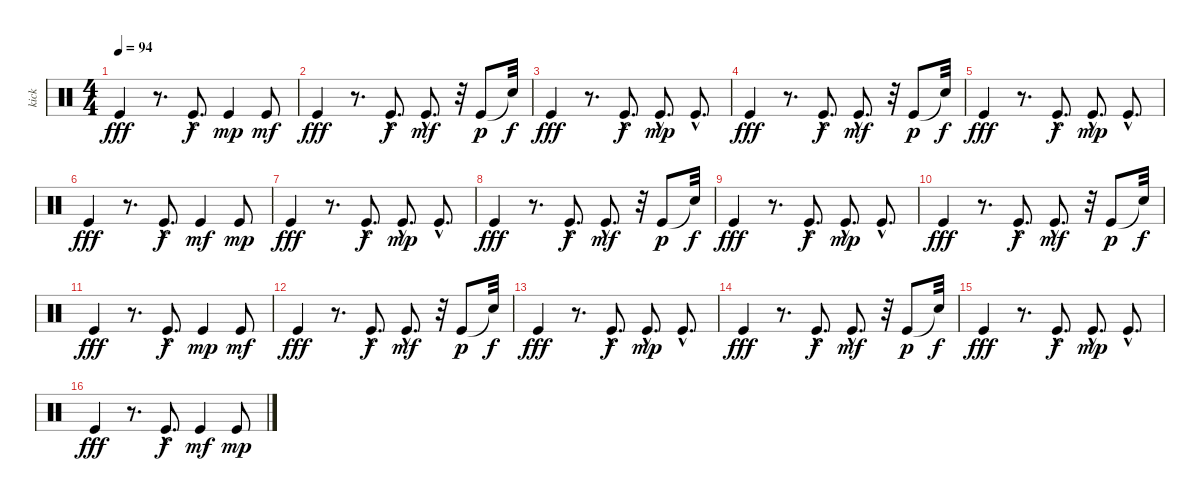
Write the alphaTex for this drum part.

\track ("kick" "kick") {instrument percussion}
\staff {score}
\articulation defaults
\ts (4 4)
\tempo 94
\clef neutral
\ks c "Kick (hit)".4{dy fff}
r.8{d} "Kick (hit)"{hac}.8{d dy f} "Kick (hit)".4{dy mp} "Kick (hit)".8{dy mf} |
"Kick (hit)".4{dy fff} r.8{d} "Kick (hit)"{hac}.8{d dy f} "Kick (hit)"{hac}.8{d dy mf} r.32 "Kick (hit)".8{dy p} "Snare (hit)"{t}.32{dy f} |
"Kick (hit)".4{dy fff} r.8{d} "Kick (hit)"{hac}.8{d dy f} "Kick (hit)"{hac}.8{d dy mp} "Kick (hit)"{hac}.8{d} |
"Kick (hit)".4{dy fff} r.8{d} "Kick (hit)"{hac}.8{d dy f} "Kick (hit)"{hac}.8{d dy mf} r.32 "Kick (hit)".8{dy p} "Snare (hit)"{t}.32{dy f} |
"Kick (hit)".4{dy fff} r.8{d} "Kick (hit)"{hac}.8{d dy f} "Kick (hit)"{hac}.8{d dy mp} "Kick (hit)"{hac}.8{d} |
"Kick (hit)".4{dy fff} r.8{d} "Kick (hit)"{hac}.8{d dy f} "Kick (hit)".4{dy mf} "Kick (hit)".8{dy mp} |
"Kick (hit)".4{dy fff} r.8{d} "Kick (hit)"{hac}.8{d dy f} "Kick (hit)"{hac}.8{d dy mp} "Kick (hit)"{hac}.8{d} |
"Kick (hit)".4{dy fff} r.8{d} "Kick (hit)"{hac}.8{d dy f} "Kick (hit)"{hac}.8{d dy mf} r.32 "Kick (hit)".8{dy p} "Snare (hit)"{t}.32{dy f} |
"Kick (hit)".4{dy fff} r.8{d} "Kick (hit)"{hac}.8{d dy f} "Kick (hit)"{hac}.8{d dy mp} "Kick (hit)"{hac}.8{d} |
"Kick (hit)".4{dy fff} r.8{d} "Kick (hit)"{hac}.8{d dy f} "Kick (hit)"{hac}.8{d dy mf} r.32 "Kick (hit)".8{dy p} "Snare (hit)"{t}.32{dy f} |
"Kick (hit)".4{dy fff} r.8{d} "Kick (hit)"{hac}.8{d dy f} "Kick (hit)".4{dy mp} "Kick (hit)".8{dy mf} |
"Kick (hit)".4{dy fff} r.8{d} "Kick (hit)"{hac}.8{d dy f} "Kick (hit)"{hac}.8{d dy mf} r.32 "Kick (hit)".8{dy p} "Snare (hit)"{t}.32{dy f} |
"Kick (hit)".4{dy fff} r.8{d} "Kick (hit)"{hac}.8{d dy f} "Kick (hit)"{hac}.8{d dy mp} "Kick (hit)"{hac}.8{d} |
"Kick (hit)".4{dy fff} r.8{d} "Kick (hit)"{hac}.8{d dy f} "Kick (hit)"{hac}.8{d dy mf} r.32 "Kick (hit)".8{dy p} "Snare (hit)"{t}.32{dy f} |
"Kick (hit)".4{dy fff} r.8{d} "Kick (hit)"{hac}.8{d dy f} "Kick (hit)"{hac}.8{d dy mp} "Kick (hit)"{hac}.8{d} |
"Kick (hit)".4{dy fff} r.8{d} "Kick (hit)"{hac}.8{d dy f} "Kick (hit)".4{dy mf} "Kick (hit)".8{dy mp}
